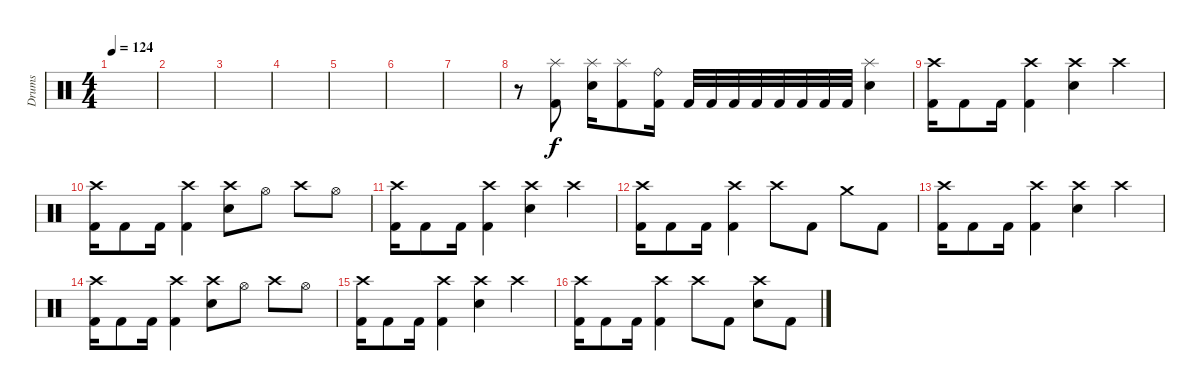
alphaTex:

\track ("Drums" "Drums") {instrument percussion}
\staff {score}
\articulation defaults
\ts (4 4)
\tempo 124
\clef neutral
\ks c
|
|
|
|
|
|
|
r.8 ("Splash (hit)" "Kick (hit) 2").8 ("Splash (hit)" "Snare (hit) 2").16 ("Splash (hit)" "Kick (hit) 2").8 ("Ride (bell)" "Kick (hit) 2").16 "Kick (hit) 2".32 "Kick (hit) 2".32 "Kick (hit) 2".32 "Kick (hit) 2".32 "Kick (hit) 2".32 "Kick (hit) 2".32 "Kick (hit) 2".32 "Kick (hit) 2".32 ("Splash (hit)" "Snare (hit) 2").4 |
("Crash high (hit)" "Kick (hit) 2").16 "Kick (hit) 2".8 "Kick (hit) 2".16 ("Crash high (hit)" "Kick (hit) 2").4 ("Crash high (hit)" "Snare (hit) 2").4 "Crash high (hit)".4 |
("Crash high (hit)" "Kick (hit) 2").16 "Kick (hit) 2".8 "Kick (hit) 2".16 ("Crash high (hit)" "Kick (hit) 2").4 ("Crash high (hit)" "Snare (hit) 2").8 "Hi-Hat (open)".8 "Crash high (hit)".8 "Hi-Hat (open)".8 |
("Crash high (hit)" "Kick (hit) 2").16 "Kick (hit) 2".8 "Kick (hit) 2".16 ("Crash high (hit)" "Kick (hit) 2").4 ("Crash high (hit)" "Snare (hit) 2").4 "Crash high (hit)".4 |
("Crash high (hit)" "Kick (hit) 2").16 "Kick (hit) 2".8 "Kick (hit) 2".16 ("Crash high (hit)" "Kick (hit) 2").4 "Crash high (hit)".8 "Kick (hit) 2".8 "Crash medium (hit)".8 "Kick (hit) 2".8 |
("Crash high (hit)" "Kick (hit) 2").16 "Kick (hit) 2".8 "Kick (hit) 2".16 ("Crash high (hit)" "Kick (hit) 2").4 ("Crash high (hit)" "Snare (hit) 2").4 "Crash high (hit)".4 |
("Crash high (hit)" "Kick (hit) 2").16 "Kick (hit) 2".8 "Kick (hit) 2".16 ("Crash high (hit)" "Kick (hit) 2").4 ("Crash high (hit)" "Snare (hit) 2").8 "Hi-Hat (open)".8 "Crash high (hit)".8 "Hi-Hat (open)".8 |
("Crash high (hit)" "Kick (hit) 2").16 "Kick (hit) 2".8 "Kick (hit) 2".16 ("Crash high (hit)" "Kick (hit) 2").4 ("Crash high (hit)" "Snare (hit) 2").4 "Crash high (hit)".4 |
("Crash high (hit)" "Kick (hit) 2").16 "Kick (hit) 2".8 "Kick (hit) 2".16 ("Crash high (hit)" "Kick (hit) 2").4 "Crash high (hit)".8 "Kick (hit) 2".8 ("Crash high (hit)" "Snare (hit) 2").8 "Kick (hit) 2".8
